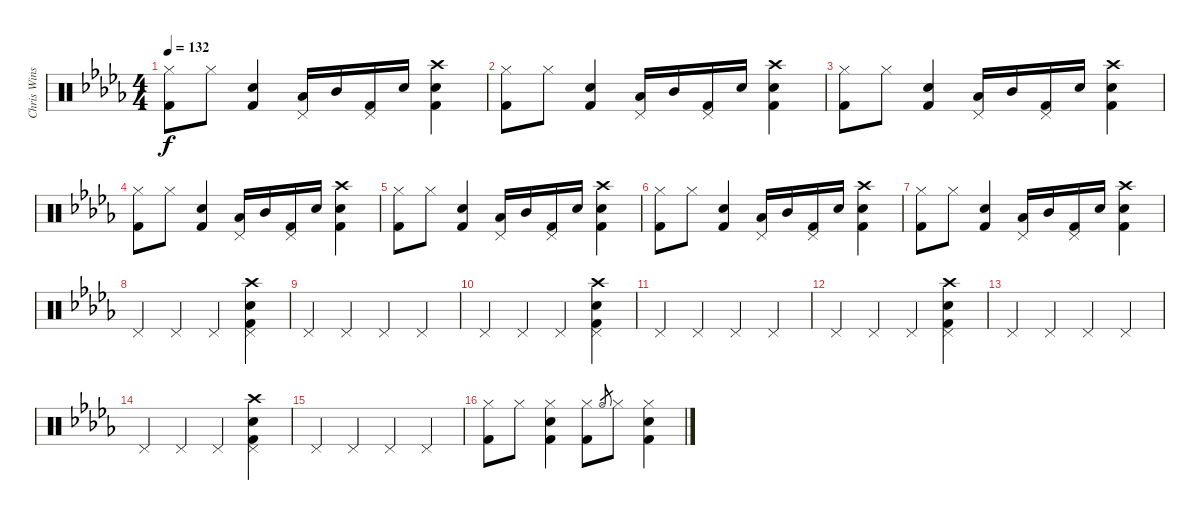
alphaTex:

\track ("Chris Winship (Drums)" "Chris Wins") {instrument percussion}
\staff {score}
\articulation defaults
\ts (4 4)
\tempo 132
\clef neutral
\ks db
("Hi-Hat (closed)" "Kick (hit) 2").8{dy f} "Hi-Hat (closed)".8 ("Electric Snare (hit)" "Kick (hit) 2").4 ("Pedal Hi-Hat (hit)" "Low Tom (hit)").16 "Mid Tom (hit)".16 ("Pedal Hi-Hat (hit)" "Kick (hit) 2").16 "Electric Snare (hit)".16 ("Crash high (hit)" "Kick (hit) 2" "Electric Snare (hit)").4 |
("Hi-Hat (closed)" "Kick (hit) 2").8 "Hi-Hat (closed)".8 ("Electric Snare (hit)" "Kick (hit) 2").4 ("Pedal Hi-Hat (hit)" "Low Tom (hit)").16 "Mid Tom (hit)".16 ("Pedal Hi-Hat (hit)" "Kick (hit) 2").16 "Electric Snare (hit)".16 ("Crash high (hit)" "Kick (hit) 2" "Electric Snare (hit)").4 |
("Hi-Hat (closed)" "Kick (hit) 2").8 "Hi-Hat (closed)".8 ("Electric Snare (hit)" "Kick (hit) 2").4 ("Pedal Hi-Hat (hit)" "Low Tom (hit)").16 "Mid Tom (hit)".16 ("Pedal Hi-Hat (hit)" "Kick (hit) 2").16 "Electric Snare (hit)".16 ("Crash high (hit)" "Kick (hit) 2" "Electric Snare (hit)").4 |
("Hi-Hat (closed)" "Kick (hit) 2").8 "Hi-Hat (closed)".8 ("Electric Snare (hit)" "Kick (hit) 2").4 ("Pedal Hi-Hat (hit)" "Low Tom (hit)").16 "Mid Tom (hit)".16 ("Pedal Hi-Hat (hit)" "Kick (hit) 2").16 "Electric Snare (hit)".16 ("Crash high (hit)" "Kick (hit) 2" "Electric Snare (hit)").4 |
("Hi-Hat (closed)" "Kick (hit) 2").8 "Hi-Hat (closed)".8 ("Electric Snare (hit)" "Kick (hit) 2").4 ("Pedal Hi-Hat (hit)" "Low Tom (hit)").16 "Mid Tom (hit)".16 ("Pedal Hi-Hat (hit)" "Kick (hit) 2").16 "Electric Snare (hit)".16 ("Crash high (hit)" "Kick (hit) 2" "Electric Snare (hit)").4 |
("Hi-Hat (closed)" "Kick (hit) 2").8 "Hi-Hat (closed)".8 ("Electric Snare (hit)" "Kick (hit) 2").4 ("Pedal Hi-Hat (hit)" "Low Tom (hit)").16 "Mid Tom (hit)".16 ("Pedal Hi-Hat (hit)" "Kick (hit) 2").16 "Electric Snare (hit)".16 ("Crash high (hit)" "Kick (hit) 2" "Electric Snare (hit)").4 |
("Hi-Hat (closed)" "Kick (hit) 2").8 "Hi-Hat (closed)".8 ("Electric Snare (hit)" "Kick (hit) 2").4 ("Pedal Hi-Hat (hit)" "Low Tom (hit)").16 "Mid Tom (hit)".16 ("Pedal Hi-Hat (hit)" "Kick (hit) 2").16 "Electric Snare (hit)".16 ("Crash high (hit)" "Kick (hit) 2" "Electric Snare (hit)").4 |
"Pedal Hi-Hat (hit)".4 "Pedal Hi-Hat (hit)".4 "Pedal Hi-Hat (hit)".4 ("Pedal Hi-Hat (hit)" "Kick (hit) 2" "Electric Snare (hit)" "Crash high (hit)").4 |
"Pedal Hi-Hat (hit)".4 "Pedal Hi-Hat (hit)".4 "Pedal Hi-Hat (hit)".4 "Pedal Hi-Hat (hit)".4 |
"Pedal Hi-Hat (hit)".4 "Pedal Hi-Hat (hit)".4 "Pedal Hi-Hat (hit)".4 ("Pedal Hi-Hat (hit)" "Kick (hit) 2" "Electric Snare (hit)" "Crash high (hit)").4 |
"Pedal Hi-Hat (hit)".4 "Pedal Hi-Hat (hit)".4 "Pedal Hi-Hat (hit)".4 "Pedal Hi-Hat (hit)".4 |
"Pedal Hi-Hat (hit)".4 "Pedal Hi-Hat (hit)".4 "Pedal Hi-Hat (hit)".4 ("Pedal Hi-Hat (hit)" "Kick (hit) 2" "Electric Snare (hit)" "Crash high (hit)").4 |
"Pedal Hi-Hat (hit)".4 "Pedal Hi-Hat (hit)".4 "Pedal Hi-Hat (hit)".4 "Pedal Hi-Hat (hit)".4 |
"Pedal Hi-Hat (hit)".4 "Pedal Hi-Hat (hit)".4 "Pedal Hi-Hat (hit)".4 ("Pedal Hi-Hat (hit)" "Kick (hit) 2" "Electric Snare (hit)" "Crash high (hit)").4 |
"Pedal Hi-Hat (hit)".4 "Pedal Hi-Hat (hit)".4 "Pedal Hi-Hat (hit)".4 "Pedal Hi-Hat (hit)".4 |
("Kick (hit) 2" "Hi-Hat (closed)").8 "Hi-Hat (closed)".8 ("Hi-Hat (closed)" "Kick (hit) 2" "Electric Snare (hit)").4 ("Kick (hit) 2" "Hi-Hat (closed)").8 "Hi-Hat (open)".8{gr} "Hi-Hat (closed)".8 ("Hi-Hat (closed)" "Kick (hit) 2" "Electric Snare (hit)").4
